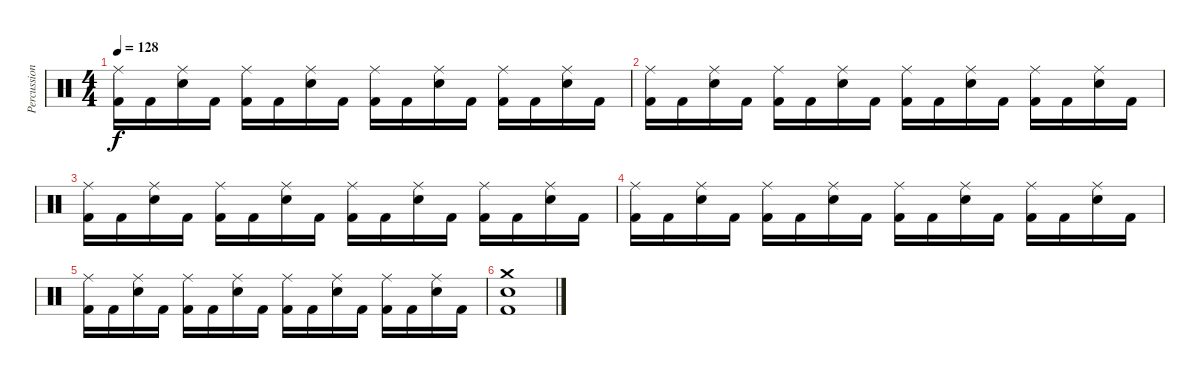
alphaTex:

\track ("Percussion" "Percussion") {instrument percussion}
\staff {score}
\articulation defaults
\ts (4 4)
\tempo 128
\clef neutral
\ks c
("Ride (middle)" "Kick (hit) 2").16{dy f} "Kick (hit) 2".16 ("Ride (middle)" "Snare (hit) 2").16 "Kick (hit) 2".16 ("Ride (middle)" "Kick (hit) 2").16 "Kick (hit) 2".16 ("Ride (middle)" "Snare (hit) 2").16 "Kick (hit) 2".16 ("Ride (middle)" "Kick (hit) 2").16 "Kick (hit) 2".16 ("Ride (middle)" "Snare (hit) 2").16 "Kick (hit) 2".16 ("Ride (middle)" "Kick (hit) 2").16 "Kick (hit) 2".16 ("Ride (middle)" "Snare (hit) 2").16 "Kick (hit) 2".16 |
("Ride (middle)" "Kick (hit) 2").16 "Kick (hit) 2".16 ("Ride (middle)" "Snare (hit) 2").16 "Kick (hit) 2".16 ("Ride (middle)" "Kick (hit) 2").16 "Kick (hit) 2".16 ("Ride (middle)" "Snare (hit) 2").16 "Kick (hit) 2".16 ("Ride (middle)" "Kick (hit) 2").16 "Kick (hit) 2".16 ("Ride (middle)" "Snare (hit) 2").16 "Kick (hit) 2".16 ("Ride (middle)" "Kick (hit) 2").16 "Kick (hit) 2".16 ("Ride (middle)" "Snare (hit) 2").16 "Kick (hit) 2".16 |
("Ride (middle)" "Kick (hit) 2").16 "Kick (hit) 2".16 ("Ride (middle)" "Snare (hit) 2").16 "Kick (hit) 2".16 ("Ride (middle)" "Kick (hit) 2").16 "Kick (hit) 2".16 ("Ride (middle)" "Snare (hit) 2").16 "Kick (hit) 2".16 ("Ride (middle)" "Kick (hit) 2").16 "Kick (hit) 2".16 ("Ride (middle)" "Snare (hit) 2").16 "Kick (hit) 2".16 ("Ride (middle)" "Kick (hit) 2").16 "Kick (hit) 2".16 ("Ride (middle)" "Snare (hit) 2").16 "Kick (hit) 2".16 |
("Ride (middle)" "Kick (hit) 2").16 "Kick (hit) 2".16 ("Ride (middle)" "Snare (hit) 2").16 "Kick (hit) 2".16 ("Ride (middle)" "Kick (hit) 2").16 "Kick (hit) 2".16 ("Ride (middle)" "Snare (hit) 2").16 "Kick (hit) 2".16 ("Ride (middle)" "Kick (hit) 2").16 "Kick (hit) 2".16 ("Ride (middle)" "Snare (hit) 2").16 "Kick (hit) 2".16 ("Ride (middle)" "Kick (hit) 2").16 "Kick (hit) 2".16 ("Ride (middle)" "Snare (hit) 2").16 "Kick (hit) 2".16 |
("Ride (middle)" "Kick (hit) 2").16 "Kick (hit) 2".16 ("Ride (middle)" "Snare (hit) 2").16 "Kick (hit) 2".16 ("Ride (middle)" "Kick (hit) 2").16 "Kick (hit) 2".16 ("Ride (middle)" "Snare (hit) 2").16 "Kick (hit) 2".16 ("Ride (middle)" "Kick (hit) 2").16 "Kick (hit) 2".16 ("Ride (middle)" "Snare (hit) 2").16 "Kick (hit) 2".16 ("Ride (middle)" "Kick (hit) 2").16 "Kick (hit) 2".16 ("Ride (middle)" "Snare (hit) 2").16 "Kick (hit) 2".16 |
("Crash medium (hit)" "Snare (hit) 2" "Kick (hit) 2").1
